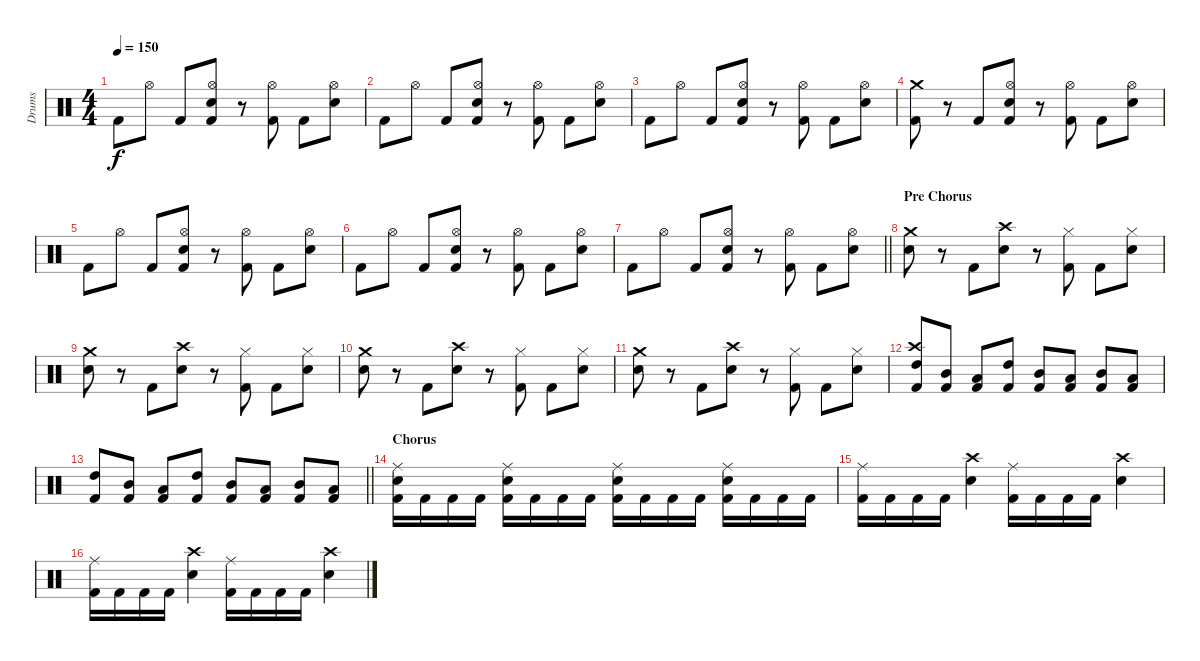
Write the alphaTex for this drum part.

\track ("Drums" "Drums") {instrument percussion}
\staff {score}
\articulation defaults
\ts (4 4)
\tempo 150
\clef neutral
\ks c "Kick (hit) 2".8{dy f} "Hi-Hat (open)".8 "Kick (hit) 2".8
("Hi-Hat (open)" "Snare (hit) 2" "Kick (hit) 2").8 r.8 ("Hi-Hat (open)" "Kick (hit) 2").8 "Kick (hit) 2".8 ("Hi-Hat (open)" "Snare (hit) 2").8 |
"Kick (hit) 2".8 "Hi-Hat (open)".8 "Kick (hit) 2".8 ("Hi-Hat (open)" "Snare (hit) 2" "Kick (hit) 2").8 r.8 ("Hi-Hat (open)" "Kick (hit) 2").8 "Kick (hit) 2".8 ("Hi-Hat (open)" "Snare (hit) 2").8 |
"Kick (hit) 2".8 "Hi-Hat (open)".8 "Kick (hit) 2".8 ("Hi-Hat (open)" "Snare (hit) 2" "Kick (hit) 2").8 r.8 ("Hi-Hat (open)" "Kick (hit) 2").8 "Kick (hit) 2".8 ("Hi-Hat (open)" "Snare (hit) 2").8 |
("Crash medium (hit)" "Kick (hit) 2").8 r.8 "Kick (hit) 2".8 ("Hi-Hat (open)" "Snare (hit) 2" "Kick (hit) 2").8 r.8 ("Hi-Hat (open)" "Kick (hit) 2").8 "Kick (hit) 2".8 ("Hi-Hat (open)" "Snare (hit) 2").8 |
"Kick (hit) 2".8 "Hi-Hat (open)".8 "Kick (hit) 2".8 ("Hi-Hat (open)" "Snare (hit) 2" "Kick (hit) 2").8 r.8 ("Hi-Hat (open)" "Kick (hit) 2").8 "Kick (hit) 2".8 ("Hi-Hat (open)" "Snare (hit) 2").8 |
"Kick (hit) 2".8 "Hi-Hat (open)".8 "Kick (hit) 2".8 ("Hi-Hat (open)" "Snare (hit) 2" "Kick (hit) 2").8 r.8 ("Hi-Hat (open)" "Kick (hit) 2").8 "Kick (hit) 2".8 ("Hi-Hat (open)" "Snare (hit) 2").8 |
\barLineRight lightlight "Kick (hit) 2".8 "Hi-Hat (open)".8 "Kick (hit) 2".8
("Hi-Hat (open)" "Snare (hit) 2" "Kick (hit) 2").8 r.8 ("Hi-Hat (open)" "Kick (hit) 2").8 "Kick (hit) 2".8 ("Hi-Hat (open)" "Snare (hit) 2").8 |
\section ("" "Pre Chorus")
("Crash medium (hit)" "Snare (hit) 2").8 r.8 "Kick (hit) 2".8 ("Crash high (hit)" "Snare (hit) 2").8 r.8 ("Hi-Hat (closed)" "Kick (hit) 2").8 "Kick (hit) 2".8 ("Hi-Hat (closed)" "Snare (hit) 2").8 |
("Crash medium (hit)" "Snare (hit) 2").8 r.8 "Kick (hit) 2".8 ("Crash high (hit)" "Snare (hit) 2").8 r.8 ("Hi-Hat (closed)" "Kick (hit) 2").8 "Kick (hit) 2".8 ("Hi-Hat (closed)" "Snare (hit) 2").8 |
("Crash medium (hit)" "Snare (hit) 2").8 r.8 "Kick (hit) 2".8 ("Crash high (hit)" "Snare (hit) 2").8 r.8 ("Hi-Hat (closed)" "Kick (hit) 2").8 "Kick (hit) 2".8 ("Hi-Hat (closed)" "Snare (hit) 2").8 |
("Crash medium (hit)" "Snare (hit) 2").8 r.8 "Kick (hit) 2".8 ("Crash high (hit)" "Snare (hit) 2").8 r.8 ("Hi-Hat (closed)" "Kick (hit) 2").8 "Kick (hit) 2".8 ("Hi-Hat (closed)" "Snare (hit) 2").8 |
("Crash high (hit)" "High Tom (hit)" "Kick (hit) 2").8 ("Mid Tom (hit)" "Kick (hit) 2").8 ("Low Tom (hit)" "Kick (hit) 2").8 ("High Tom (hit)" "Kick (hit) 2").8 ("Mid Tom (hit)" "Kick (hit) 2").8 ("Low Tom (hit)" "Kick (hit) 2").8 ("Mid Tom (hit)" "Kick (hit) 2").8 ("Low Tom (hit)" "Kick (hit) 2").8 |
\barLineRight lightlight
("High Tom (hit)" "Kick (hit) 2").8 ("Mid Tom (hit)" "Kick (hit) 2").8 ("Low Tom (hit)" "Kick (hit) 2").8 ("High Tom (hit)" "Kick (hit) 2").8 ("Mid Tom (hit)" "Kick (hit) 2").8 ("Low Tom (hit)" "Kick (hit) 2").8 ("Mid Tom (hit)" "Kick (hit) 2").8 ("Low Tom (hit)" "Kick (hit) 2").8 |
\section ("" "Chorus")
("Ride (middle)" "Snare (hit) 2" "Kick (hit) 2").16 "Kick (hit) 2".16 "Kick (hit) 2".16 "Kick (hit) 2".16 ("Ride (middle)" "Snare (hit) 2" "Kick (hit) 2").16 "Kick (hit) 2".16 "Kick (hit) 2".16 "Kick (hit) 2".16 ("Ride (middle)" "Snare (hit) 2" "Kick (hit) 2").16 "Kick (hit) 2".16 "Kick (hit) 2".16 "Kick (hit) 2".16 ("Ride (middle)" "Snare (hit) 2" "Kick (hit) 2").16 "Kick (hit) 2".16 "Kick (hit) 2".16 "Kick (hit) 2".16 |
("Ride (middle)" "Kick (hit) 2").16 "Kick (hit) 2".16 "Kick (hit) 2".16 "Kick (hit) 2".16 ("Crash high (hit)" "Snare (hit) 2").4 ("Ride (middle)" "Kick (hit) 2").16 "Kick (hit) 2".16 "Kick (hit) 2".16 "Kick (hit) 2".16 ("Crash high (hit)" "Snare (hit) 2").4 |
("Ride (middle)" "Kick (hit) 2").16 "Kick (hit) 2".16 "Kick (hit) 2".16 "Kick (hit) 2".16 ("Crash high (hit)" "Snare (hit) 2").4 ("Ride (middle)" "Kick (hit) 2").16 "Kick (hit) 2".16 "Kick (hit) 2".16 "Kick (hit) 2".16 ("Crash high (hit)" "Snare (hit) 2").4
